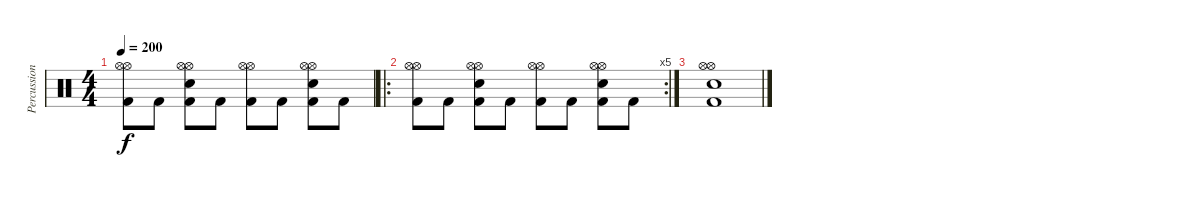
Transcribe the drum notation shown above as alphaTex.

\track ("Percussioni" "Percussion") {instrument percussion}
\staff {score}
\articulation defaults
\ts (4 4)
\tempo 200
\clef neutral
\ks c
("Hi-Hat (open)" "Kick (hit) 2" "Hi-Hat (open)").8{dy f} "Kick (hit) 2".8 ("Snare (hit) 2" "Hi-Hat (open)" "Kick (hit) 2" "Hi-Hat (open)").8 "Kick (hit) 2".8 ("Hi-Hat (open)" "Kick (hit) 2" "Hi-Hat (open)").8 "Kick (hit) 2".8 ("Snare (hit) 2" "Hi-Hat (open)" "Kick (hit) 2" "Hi-Hat (open)").8 "Kick (hit) 2".8 |
\ro
\rc 5
("Hi-Hat (open)" "Kick (hit) 2" "Hi-Hat (open)").8 "Kick (hit) 2".8 ("Snare (hit) 2" "Hi-Hat (open)" "Kick (hit) 2" "Hi-Hat (open)").8 "Kick (hit) 2".8 ("Hi-Hat (open)" "Kick (hit) 2" "Hi-Hat (open)").8 "Kick (hit) 2".8 ("Snare (hit) 2" "Hi-Hat (open)" "Kick (hit) 2" "Hi-Hat (open)").8 "Kick (hit) 2".8 |
("Snare (hit) 2" "Kick (hit) 2" "Hi-Hat (open)" "Hi-Hat (open)").1
